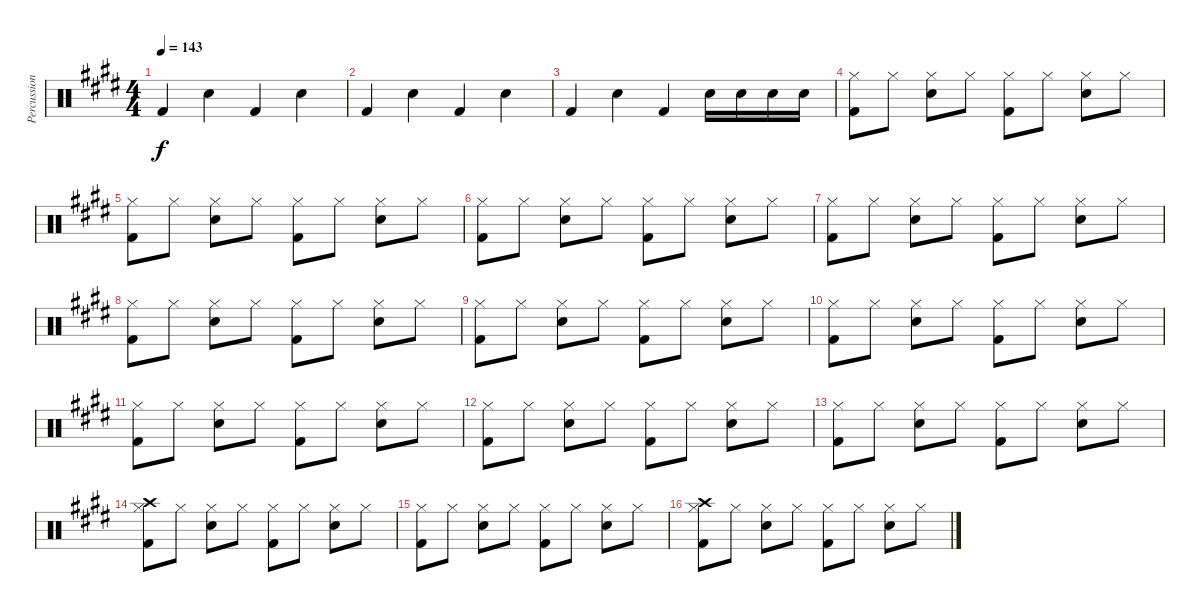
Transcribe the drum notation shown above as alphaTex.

\track ("Percussion" "Percussion") {instrument percussion}
\staff {score}
\articulation defaults
\ts (4 4)
\tempo 143
\clef neutral
\ks e "Kick (hit) 2".4{dy f} "Snare (hit) 2".4 "Kick (hit) 2".4 "Snare (hit) 2".4
|
"Kick (hit) 2".4 "Snare (hit) 2".4 "Kick (hit) 2".4 "Snare (hit) 2".4 |
"Kick (hit) 2".4 "Snare (hit) 2".4 "Kick (hit) 2".4 "Snare (hit) 2".16 "Snare (hit) 2".16 "Snare (hit) 2".16 "Snare (hit) 2".16 |
("Hi-Hat (closed)" "Kick (hit) 2").8 "Hi-Hat (closed)".8 ("Hi-Hat (closed)" "Snare (hit) 2").8 "Hi-Hat (closed)".8 ("Hi-Hat (closed)" "Kick (hit) 2").8 "Hi-Hat (closed)".8 ("Hi-Hat (closed)" "Snare (hit) 2").8 "Hi-Hat (closed)".8 |
("Hi-Hat (closed)" "Kick (hit) 2").8 "Hi-Hat (closed)".8 ("Hi-Hat (closed)" "Snare (hit) 2").8 "Hi-Hat (closed)".8 ("Hi-Hat (closed)" "Kick (hit) 2").8 "Hi-Hat (closed)".8 ("Hi-Hat (closed)" "Snare (hit) 2").8 "Hi-Hat (closed)".8 |
("Hi-Hat (closed)" "Kick (hit) 2").8 "Hi-Hat (closed)".8 ("Hi-Hat (closed)" "Snare (hit) 2").8 "Hi-Hat (closed)".8 ("Hi-Hat (closed)" "Kick (hit) 2").8 "Hi-Hat (closed)".8 ("Hi-Hat (closed)" "Snare (hit) 2").8 "Hi-Hat (closed)".8 |
("Hi-Hat (closed)" "Kick (hit) 2").8 "Hi-Hat (closed)".8 ("Hi-Hat (closed)" "Snare (hit) 2").8 "Hi-Hat (closed)".8 ("Hi-Hat (closed)" "Kick (hit) 2").8 "Hi-Hat (closed)".8 ("Hi-Hat (closed)" "Snare (hit) 2").8 "Hi-Hat (closed)".8 |
("Hi-Hat (closed)" "Kick (hit) 2").8 "Hi-Hat (closed)".8 ("Hi-Hat (closed)" "Snare (hit) 2").8 "Hi-Hat (closed)".8 ("Hi-Hat (closed)" "Kick (hit) 2").8 "Hi-Hat (closed)".8 ("Hi-Hat (closed)" "Snare (hit) 2").8 "Hi-Hat (closed)".8 |
("Hi-Hat (closed)" "Kick (hit) 2").8 "Hi-Hat (closed)".8 ("Hi-Hat (closed)" "Snare (hit) 2").8 "Hi-Hat (closed)".8 ("Hi-Hat (closed)" "Kick (hit) 2").8 "Hi-Hat (closed)".8 ("Hi-Hat (closed)" "Snare (hit) 2").8 "Hi-Hat (closed)".8 |
("Hi-Hat (closed)" "Kick (hit) 2").8 "Hi-Hat (closed)".8 ("Hi-Hat (closed)" "Snare (hit) 2").8 "Hi-Hat (closed)".8 ("Hi-Hat (closed)" "Kick (hit) 2").8 "Hi-Hat (closed)".8 ("Hi-Hat (closed)" "Snare (hit) 2").8 "Hi-Hat (closed)".8 |
("Hi-Hat (closed)" "Kick (hit) 2").8 "Hi-Hat (closed)".8 ("Hi-Hat (closed)" "Snare (hit) 2").8 "Hi-Hat (closed)".8 ("Hi-Hat (closed)" "Kick (hit) 2").8 "Hi-Hat (closed)".8 ("Hi-Hat (closed)" "Snare (hit) 2").8 "Hi-Hat (closed)".8 |
("Hi-Hat (closed)" "Kick (hit) 2").8 "Hi-Hat (closed)".8 ("Hi-Hat (closed)" "Snare (hit) 2").8 "Hi-Hat (closed)".8 ("Hi-Hat (closed)" "Kick (hit) 2").8 "Hi-Hat (closed)".8 ("Hi-Hat (closed)" "Snare (hit) 2").8 "Hi-Hat (closed)".8 |
("Hi-Hat (closed)" "Kick (hit) 2").8 "Hi-Hat (closed)".8 ("Hi-Hat (closed)" "Snare (hit) 2").8 "Hi-Hat (closed)".8 ("Hi-Hat (closed)" "Kick (hit) 2").8 "Hi-Hat (closed)".8 ("Hi-Hat (closed)" "Snare (hit) 2").8 "Hi-Hat (closed)".8 |
("Hi-Hat (closed)" "Kick (hit) 2" "Crash high (hit)").8 "Hi-Hat (closed)".8 ("Hi-Hat (closed)" "Snare (hit) 2").8 "Hi-Hat (closed)".8 ("Hi-Hat (closed)" "Kick (hit) 2").8 "Hi-Hat (closed)".8 ("Hi-Hat (closed)" "Snare (hit) 2").8 "Hi-Hat (closed)".8 |
("Hi-Hat (closed)" "Kick (hit) 2").8 "Hi-Hat (closed)".8 ("Hi-Hat (closed)" "Snare (hit) 2").8 "Hi-Hat (closed)".8 ("Hi-Hat (closed)" "Kick (hit) 2").8 "Hi-Hat (closed)".8 ("Hi-Hat (closed)" "Snare (hit) 2").8 "Hi-Hat (closed)".8 |
("Hi-Hat (closed)" "Kick (hit) 2" "Crash high (hit)").8 "Hi-Hat (closed)".8 ("Hi-Hat (closed)" "Snare (hit) 2").8 "Hi-Hat (closed)".8 ("Hi-Hat (closed)" "Kick (hit) 2").8 "Hi-Hat (closed)".8 ("Hi-Hat (closed)" "Snare (hit) 2").8 "Hi-Hat (closed)".8
